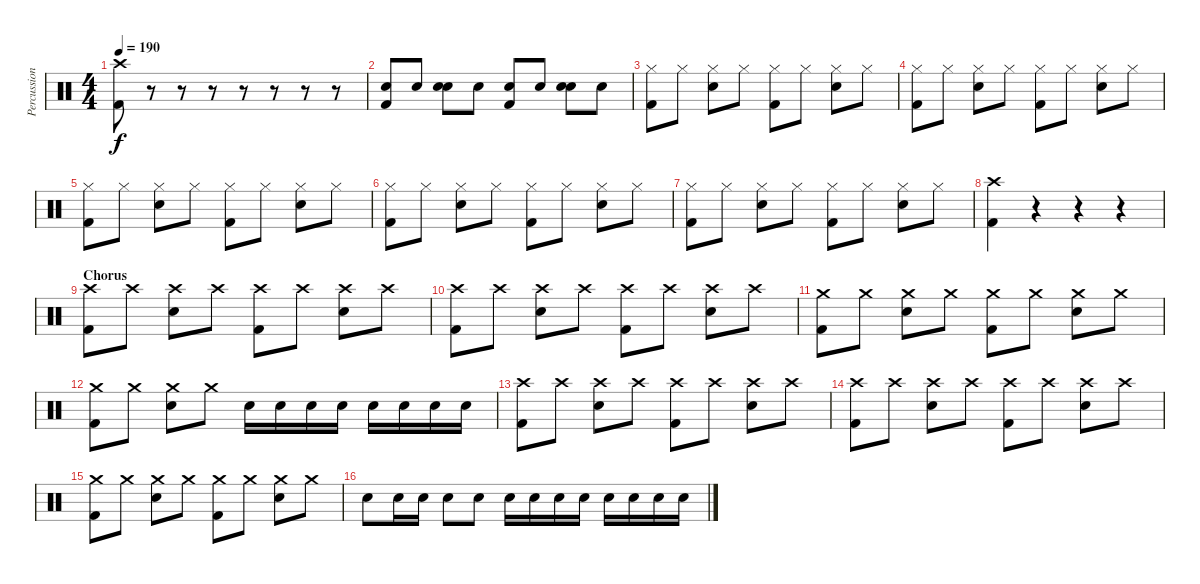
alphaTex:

\track ("Percussion" "Percussion") {instrument percussion}
\staff {score}
\articulation defaults
\ts (4 4)
\tempo 190
\clef neutral
\ks c
("Crash high (hit)" "Kick (hit) 2").8{dy f} r.8 r.8 r.8 r.8 r.8 r.8 r.8 |
("Electric Snare (hit)" "Kick (hit) 2").8{volume 16} "Electric Snare (hit)".8 ("Electric Snare (hit)" "Electric Snare (hit)").8 "Electric Snare (hit)".8 ("Electric Snare (hit)" "Kick (hit) 2").8 "Electric Snare (hit)".8 ("Electric Snare (hit)" "Electric Snare (hit)").8 "Electric Snare (hit)".8 |
("Hi-Hat (closed)" "Kick (hit) 2").8{volume 13} "Hi-Hat (closed)".8 ("Hi-Hat (closed)" "Electric Snare (hit)").8 "Hi-Hat (closed)".8 ("Hi-Hat (closed)" "Kick (hit) 2").8 "Hi-Hat (closed)".8 ("Hi-Hat (closed)" "Electric Snare (hit)").8 "Hi-Hat (closed)".8 |
("Hi-Hat (closed)" "Kick (hit) 2").8 "Hi-Hat (closed)".8 ("Hi-Hat (closed)" "Electric Snare (hit)").8 "Hi-Hat (closed)".8 ("Hi-Hat (closed)" "Kick (hit) 2").8 "Hi-Hat (closed)".8 ("Hi-Hat (closed)" "Electric Snare (hit)").8 "Hi-Hat (closed)".8 |
("Hi-Hat (closed)" "Kick (hit) 2").8 "Hi-Hat (closed)".8 ("Hi-Hat (closed)" "Electric Snare (hit)").8 "Hi-Hat (closed)".8 ("Hi-Hat (closed)" "Kick (hit) 2").8 "Hi-Hat (closed)".8 ("Hi-Hat (closed)" "Electric Snare (hit)").8 "Hi-Hat (closed)".8 |
("Hi-Hat (closed)" "Kick (hit) 2").8 "Hi-Hat (closed)".8 ("Hi-Hat (closed)" "Electric Snare (hit)").8 "Hi-Hat (closed)".8 ("Hi-Hat (closed)" "Kick (hit) 2").8 "Hi-Hat (closed)".8 ("Hi-Hat (closed)" "Electric Snare (hit)").8 "Hi-Hat (closed)".8 |
("Hi-Hat (closed)" "Kick (hit) 2").8 "Hi-Hat (closed)".8 ("Hi-Hat (closed)" "Electric Snare (hit)").8 "Hi-Hat (closed)".8 ("Hi-Hat (closed)" "Kick (hit) 2").8 "Hi-Hat (closed)".8 ("Hi-Hat (closed)" "Electric Snare (hit)").8 "Hi-Hat (closed)".8 |
("Crash high (hit)" "Kick (hit) 2").4 r.4 r.4 r.4 |
\section ("" "Chorus")
("Crash high (hit)" "Kick (hit) 2").8 "Crash high (hit)".8 ("Crash high (hit)" "Electric Snare (hit)").8 "Crash high (hit)".8 ("Crash high (hit)" "Kick (hit) 2").8 "Crash high (hit)".8 ("Crash high (hit)" "Electric Snare (hit)").8 "Crash high (hit)".8 |
("Crash high (hit)" "Kick (hit) 2").8 "Crash high (hit)".8 ("Crash high (hit)" "Electric Snare (hit)").8 "Crash high (hit)".8 ("Crash high (hit)" "Kick (hit) 2").8 "Crash high (hit)".8 ("Crash high (hit)" "Electric Snare (hit)").8 "Crash high (hit)".8 |
("Crash medium (hit)" "Kick (hit) 2").8 "Crash medium (hit)".8 ("Crash medium (hit)" "Electric Snare (hit)").8 "Crash medium (hit)".8 ("Crash medium (hit)" "Kick (hit) 2").8 "Crash medium (hit)".8 ("Crash medium (hit)" "Electric Snare (hit)").8 "Crash medium (hit)".8 |
("Crash medium (hit)" "Kick (hit) 2").8 "Crash medium (hit)".8 ("Crash medium (hit)" "Electric Snare (hit)").8 "Crash medium (hit)".8 "Electric Snare (hit)".16 "Electric Snare (hit)".16 "Electric Snare (hit)".16 "Electric Snare (hit)".16 "Electric Snare (hit)".16 "Electric Snare (hit)".16 "Electric Snare (hit)".16 "Electric Snare (hit)".16 |
("Crash high (hit)" "Kick (hit) 2").8 "Crash high (hit)".8 ("Crash high (hit)" "Electric Snare (hit)").8 "Crash high (hit)".8 ("Crash high (hit)" "Kick (hit) 2").8 "Crash high (hit)".8 ("Crash high (hit)" "Electric Snare (hit)").8 "Crash high (hit)".8 |
("Crash high (hit)" "Kick (hit) 2").8 "Crash high (hit)".8 ("Crash high (hit)" "Electric Snare (hit)").8 "Crash high (hit)".8 ("Crash high (hit)" "Kick (hit) 2").8 "Crash high (hit)".8 ("Crash high (hit)" "Electric Snare (hit)").8 "Crash high (hit)".8 |
("Crash medium (hit)" "Kick (hit) 2").8 "Crash medium (hit)".8 ("Crash medium (hit)" "Electric Snare (hit)").8 "Crash medium (hit)".8 ("Crash medium (hit)" "Kick (hit) 2").8 "Crash medium (hit)".8 ("Crash medium (hit)" "Electric Snare (hit)").8 "Crash medium (hit)".8 |
"Electric Snare (hit)".8 "Electric Snare (hit)".16 "Electric Snare (hit)".16 "Electric Snare (hit)".8 "Electric Snare (hit)".8 "Electric Snare (hit)".16 "Electric Snare (hit)".16 "Electric Snare (hit)".16 "Electric Snare (hit)".16 "Electric Snare (hit)".16 "Electric Snare (hit)".16 "Electric Snare (hit)".16 "Electric Snare (hit)".16
